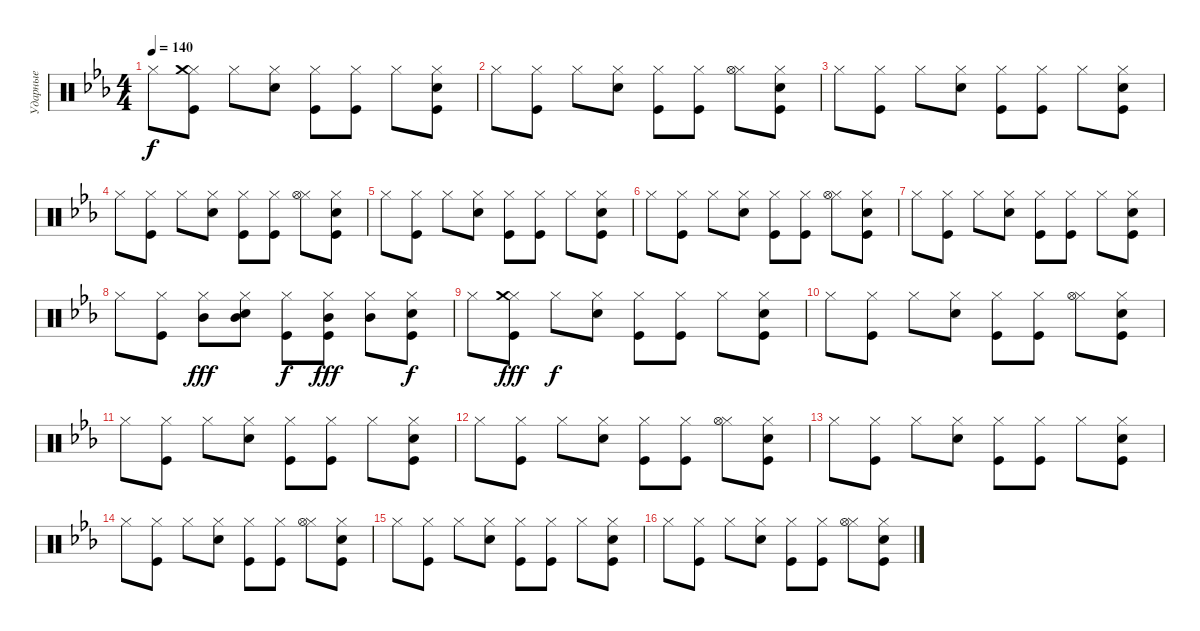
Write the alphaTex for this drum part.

\track ("Ударные" "Ударные") {instrument percussion}
\staff {score}
\articulation defaults
\ts (4 4)
\tempo 140
\clef neutral
\ks cminor "Hi-Hat (closed)".8{dy f}
("Hi-Hat (closed)" "Crash medium (hit)" "Kick (hit)").8 "Hi-Hat (closed)".8 ("Hi-Hat (closed)" "Snare (hit) 2").8 ("Hi-Hat (closed)" "Kick (hit)").8 ("Hi-Hat (closed)" "Kick (hit)").8 "Hi-Hat (closed)".8 ("Hi-Hat (closed)" "Kick (hit)" "Snare (hit) 2").8 |
"Hi-Hat (closed)".8 ("Hi-Hat (closed)" "Kick (hit)").8 "Hi-Hat (closed)".8 ("Hi-Hat (closed)" "Snare (hit) 2").8 ("Hi-Hat (closed)" "Kick (hit)").8 ("Hi-Hat (closed)" "Kick (hit)").8 ("Hi-Hat (closed)" "Hi-Hat (open)").8 ("Hi-Hat (closed)" "Kick (hit)" "Snare (hit) 2").8 |
"Hi-Hat (closed)".8 ("Hi-Hat (closed)" "Kick (hit)").8 "Hi-Hat (closed)".8 ("Hi-Hat (closed)" "Snare (hit) 2").8 ("Hi-Hat (closed)" "Kick (hit)").8 ("Hi-Hat (closed)" "Kick (hit)").8 "Hi-Hat (closed)".8 ("Hi-Hat (closed)" "Kick (hit)" "Snare (hit) 2").8 |
"Hi-Hat (closed)".8 ("Hi-Hat (closed)" "Kick (hit)").8 "Hi-Hat (closed)".8 ("Hi-Hat (closed)" "Snare (hit) 2").8 ("Hi-Hat (closed)" "Kick (hit)").8 ("Hi-Hat (closed)" "Kick (hit)").8 ("Hi-Hat (closed)" "Hi-Hat (open)").8 ("Hi-Hat (closed)" "Kick (hit)" "Snare (hit) 2").8 |
"Hi-Hat (closed)".8 ("Hi-Hat (closed)" "Kick (hit)").8 "Hi-Hat (closed)".8 ("Hi-Hat (closed)" "Snare (hit) 2").8 ("Hi-Hat (closed)" "Kick (hit)").8 ("Hi-Hat (closed)" "Kick (hit)").8 "Hi-Hat (closed)".8 ("Hi-Hat (closed)" "Kick (hit)" "Snare (hit) 2").8 |
"Hi-Hat (closed)".8 ("Hi-Hat (closed)" "Kick (hit)").8 "Hi-Hat (closed)".8 ("Hi-Hat (closed)" "Snare (hit) 2").8 ("Hi-Hat (closed)" "Kick (hit)").8 ("Hi-Hat (closed)" "Kick (hit)").8 ("Hi-Hat (closed)" "Hi-Hat (open)").8 ("Hi-Hat (closed)" "Kick (hit)" "Snare (hit) 2").8 |
"Hi-Hat (closed)".8 ("Hi-Hat (closed)" "Kick (hit)").8 "Hi-Hat (closed)".8 ("Hi-Hat (closed)" "Snare (hit) 2").8 ("Hi-Hat (closed)" "Kick (hit)").8 ("Hi-Hat (closed)" "Kick (hit)").8 "Hi-Hat (closed)".8 ("Hi-Hat (closed)" "Kick (hit)" "Snare (hit) 2").8 |
"Hi-Hat (closed)".8 ("Hi-Hat (closed)" "Kick (hit)").8 ("Hi-Hat (closed)" "Mid Tom (hit)").8{dy fff} ("Hi-Hat (closed)" "Mid Tom (hit)" "Snare (hit) 2").8 ("Hi-Hat (closed)" "Kick (hit)").8{dy f} ("Hi-Hat (closed)" "Kick (hit)" "Mid Tom (hit)").8{dy fff} ("Hi-Hat (closed)" "Mid Tom (hit)").8 ("Hi-Hat (closed)" "Kick (hit)" "Snare (hit) 2").8{dy f} |
"Hi-Hat (closed)".8 ("Hi-Hat (closed)" "Crash medium (hit)" "Kick (hit)").8{dy fff} "Hi-Hat (closed)".8{dy f} ("Hi-Hat (closed)" "Snare (hit) 2").8 ("Hi-Hat (closed)" "Kick (hit)").8 ("Hi-Hat (closed)" "Kick (hit)").8 "Hi-Hat (closed)".8 ("Hi-Hat (closed)" "Kick (hit)" "Snare (hit) 2").8 |
"Hi-Hat (closed)".8 ("Hi-Hat (closed)" "Kick (hit)").8 "Hi-Hat (closed)".8 ("Hi-Hat (closed)" "Snare (hit) 2").8 ("Hi-Hat (closed)" "Kick (hit)").8 ("Hi-Hat (closed)" "Kick (hit)").8 ("Hi-Hat (closed)" "Hi-Hat (open)").8 ("Hi-Hat (closed)" "Kick (hit)" "Snare (hit) 2").8 |
"Hi-Hat (closed)".8 ("Hi-Hat (closed)" "Kick (hit)").8 "Hi-Hat (closed)".8 ("Hi-Hat (closed)" "Snare (hit) 2").8 ("Hi-Hat (closed)" "Kick (hit)").8 ("Hi-Hat (closed)" "Kick (hit)").8 "Hi-Hat (closed)".8 ("Hi-Hat (closed)" "Kick (hit)" "Snare (hit) 2").8 |
"Hi-Hat (closed)".8 ("Hi-Hat (closed)" "Kick (hit)").8 "Hi-Hat (closed)".8 ("Hi-Hat (closed)" "Snare (hit) 2").8 ("Hi-Hat (closed)" "Kick (hit)").8 ("Hi-Hat (closed)" "Kick (hit)").8 ("Hi-Hat (closed)" "Hi-Hat (open)").8 ("Hi-Hat (closed)" "Kick (hit)" "Snare (hit) 2").8 |
"Hi-Hat (closed)".8 ("Hi-Hat (closed)" "Kick (hit)").8 "Hi-Hat (closed)".8 ("Hi-Hat (closed)" "Snare (hit) 2").8 ("Hi-Hat (closed)" "Kick (hit)").8 ("Hi-Hat (closed)" "Kick (hit)").8 "Hi-Hat (closed)".8 ("Hi-Hat (closed)" "Kick (hit)" "Snare (hit) 2").8 |
"Hi-Hat (closed)".8 ("Hi-Hat (closed)" "Kick (hit)").8 "Hi-Hat (closed)".8 ("Hi-Hat (closed)" "Snare (hit) 2").8 ("Hi-Hat (closed)" "Kick (hit)").8 ("Hi-Hat (closed)" "Kick (hit)").8 ("Hi-Hat (closed)" "Hi-Hat (open)").8 ("Hi-Hat (closed)" "Kick (hit)" "Snare (hit) 2").8 |
"Hi-Hat (closed)".8 ("Hi-Hat (closed)" "Kick (hit)").8 "Hi-Hat (closed)".8 ("Hi-Hat (closed)" "Snare (hit) 2").8 ("Hi-Hat (closed)" "Kick (hit)").8 ("Hi-Hat (closed)" "Kick (hit)").8 "Hi-Hat (closed)".8 ("Hi-Hat (closed)" "Kick (hit)" "Snare (hit) 2").8 |
"Hi-Hat (closed)".8 ("Hi-Hat (closed)" "Kick (hit)").8 "Hi-Hat (closed)".8 ("Hi-Hat (closed)" "Snare (hit) 2").8 ("Hi-Hat (closed)" "Kick (hit)").8 ("Hi-Hat (closed)" "Kick (hit)").8 ("Hi-Hat (closed)" "Hi-Hat (open)").8 ("Hi-Hat (closed)" "Kick (hit)" "Snare (hit) 2").8
